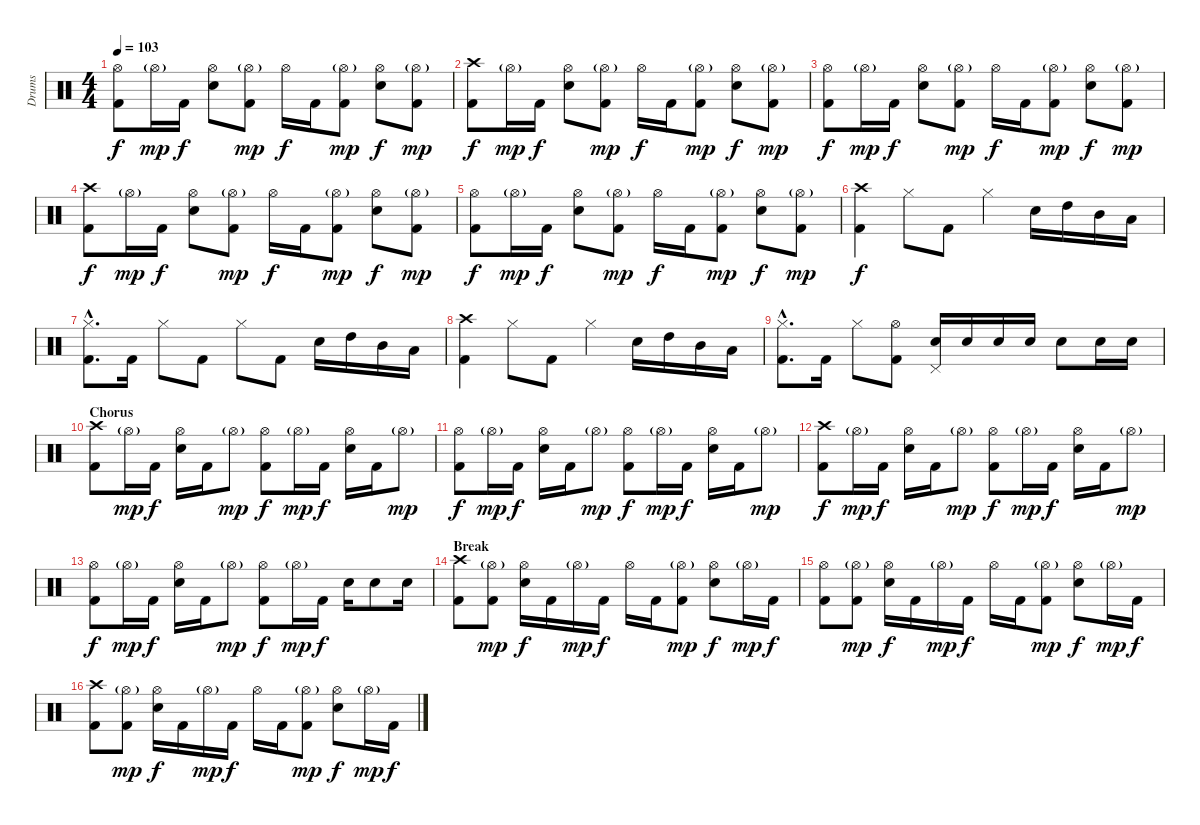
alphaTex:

\track ("Drums" "Drums") {instrument percussion}
\staff {score}
\articulation defaults
\ts (4 4)
\tempo 103
\clef neutral
\ks c
("Hi-Hat (open)" "Kick (hit) 2").8{dy f} "Hi-Hat (open)"{g}.16{dy mp} "Kick (hit) 2".16{dy f} ("Hi-Hat (open)" "Snare (hit) 2").8 ("Hi-Hat (open)"{g} "Kick (hit) 2").8{dy mp} "Hi-Hat (open)".16{dy f} "Kick (hit) 2".16 ("Hi-Hat (open)"{g} "Kick (hit) 2").8{dy mp} ("Hi-Hat (open)" "Snare (hit) 2").8{dy f} ("Hi-Hat (open)"{g} "Kick (hit) 2").8{dy mp} |
("Crash high (hit)" "Kick (hit) 2").8{dy f} "Hi-Hat (open)"{g}.16{dy mp} "Kick (hit) 2".16{dy f} ("Hi-Hat (open)" "Snare (hit) 2").8 ("Hi-Hat (open)"{g} "Kick (hit) 2").8{dy mp} "Hi-Hat (open)".16{dy f} "Kick (hit) 2".16 ("Hi-Hat (open)"{g} "Kick (hit) 2").8{dy mp} ("Hi-Hat (open)" "Snare (hit) 2").8{dy f} ("Hi-Hat (open)"{g} "Kick (hit) 2").8{dy mp} |
("Hi-Hat (open)" "Kick (hit) 2").8{dy f} "Hi-Hat (open)"{g}.16{dy mp} "Kick (hit) 2".16{dy f} ("Hi-Hat (open)" "Snare (hit) 2").8 ("Hi-Hat (open)"{g} "Kick (hit) 2").8{dy mp} "Hi-Hat (open)".16{dy f} "Kick (hit) 2".16 ("Hi-Hat (open)"{g} "Kick (hit) 2").8{dy mp} ("Hi-Hat (open)" "Snare (hit) 2").8{dy f} ("Hi-Hat (open)"{g} "Kick (hit) 2").8{dy mp} |
("Crash high (hit)" "Kick (hit) 2").8{dy f} "Hi-Hat (open)"{g}.16{dy mp} "Kick (hit) 2".16{dy f} ("Hi-Hat (open)" "Snare (hit) 2").8 ("Hi-Hat (open)"{g} "Kick (hit) 2").8{dy mp} "Hi-Hat (open)".16{dy f} "Kick (hit) 2".16 ("Hi-Hat (open)"{g} "Kick (hit) 2").8{dy mp} ("Hi-Hat (open)" "Snare (hit) 2").8{dy f} ("Hi-Hat (open)"{g} "Kick (hit) 2").8{dy mp} |
("Hi-Hat (open)" "Kick (hit) 2").8{dy f} "Hi-Hat (open)"{g}.16{dy mp} "Kick (hit) 2".16{dy f} ("Hi-Hat (open)" "Snare (hit) 2").8 ("Hi-Hat (open)"{g} "Kick (hit) 2").8{dy mp} "Hi-Hat (open)".16{dy f} "Kick (hit) 2".16 ("Hi-Hat (open)"{g} "Kick (hit) 2").8{dy mp} ("Hi-Hat (open)" "Snare (hit) 2").8{dy f} ("Hi-Hat (open)"{g} "Kick (hit) 2").8{dy mp} |
("Crash high (hit)" "Kick (hit) 2").4{dy f} "Hi-Hat (closed)".8 "Kick (hit) 2".8 "Hi-Hat (closed)".4 "Snare (hit) 2".16 "High Tom (hit)".16 "Mid Tom (hit)".16 "Low Floor Tom (hit)".16 |
("Hi-Hat (closed)"{hac} "Kick (hit) 2"{hac}).8{d} "Kick (hit) 2".16 "Hi-Hat (closed)".8 "Kick (hit) 2".8 "Hi-Hat (closed)".8 "Kick (hit) 2".8 "Snare (hit) 2".16 "High Tom (hit)".16 "Mid Tom (hit)".16 "Low Floor Tom (hit)".16 |
("Crash high (hit)" "Kick (hit) 2").4 "Hi-Hat (closed)".8 "Kick (hit) 2".8 "Hi-Hat (closed)".4 "Snare (hit) 2".16 "High Tom (hit)".16 "Mid Tom (hit)".16 "Low Floor Tom (hit)".16 |
("Hi-Hat (closed)"{hac} "Kick (hit) 2"{hac}).8{d} "Kick (hit) 2".16 "Hi-Hat (closed)".8 ("Hi-Hat (open)" "Kick (hit) 2").8 ("Snare (hit) 2" "Pedal Hi-Hat (hit)").16 "Snare (hit) 2".16 "Snare (hit) 2".16 "Snare (hit) 2".16 "Snare (hit) 2".8 "Snare (hit) 2".16 "Snare (hit) 2".16 |
\section ("" "Chorus")
("Crash high (hit)" "Kick (hit) 2").8 "Hi-Hat (open)"{g}.16{dy mp} "Kick (hit) 2".16{dy f} ("Hi-Hat (open)" "Snare (hit) 2").16 "Kick (hit) 2".16 "Hi-Hat (open)"{g}.8{dy mp} ("Hi-Hat (open)" "Kick (hit) 2").8{dy f} "Hi-Hat (open)"{g}.16{dy mp} "Kick (hit) 2".16{dy f} ("Hi-Hat (open)" "Snare (hit) 2").16 "Kick (hit) 2".16 "Hi-Hat (open)"{g}.8{dy mp} |
("Hi-Hat (open)" "Kick (hit) 2").8{dy f} "Hi-Hat (open)"{g}.16{dy mp} "Kick (hit) 2".16{dy f} ("Hi-Hat (open)" "Snare (hit) 2").16 "Kick (hit) 2".16 "Hi-Hat (open)"{g}.8{dy mp} ("Hi-Hat (open)" "Kick (hit) 2").8{dy f} "Hi-Hat (open)"{g}.16{dy mp} "Kick (hit) 2".16{dy f} ("Hi-Hat (open)" "Snare (hit) 2").16 "Kick (hit) 2".16 "Hi-Hat (open)"{g}.8{dy mp} |
("Crash high (hit)" "Kick (hit) 2").8{dy f} "Hi-Hat (open)"{g}.16{dy mp} "Kick (hit) 2".16{dy f} ("Hi-Hat (open)" "Snare (hit) 2").16 "Kick (hit) 2".16 "Hi-Hat (open)"{g}.8{dy mp} ("Hi-Hat (open)" "Kick (hit) 2").8{dy f} "Hi-Hat (open)"{g}.16{dy mp} "Kick (hit) 2".16{dy f} ("Hi-Hat (open)" "Snare (hit) 2").16 "Kick (hit) 2".16 "Hi-Hat (open)"{g}.8{dy mp} |
("Hi-Hat (open)" "Kick (hit) 2").8{dy f} "Hi-Hat (open)"{g}.16{dy mp} "Kick (hit) 2".16{dy f} ("Hi-Hat (open)" "Snare (hit) 2").16 "Kick (hit) 2".16 "Hi-Hat (open)"{g}.8{dy mp} ("Hi-Hat (open)" "Kick (hit) 2").8{dy f} "Hi-Hat (open)"{g}.16{dy mp} "Kick (hit) 2".16{dy f} "Snare (hit) 2".16 "Snare (hit) 2".8 "Snare (hit) 2".16 |
\section ("" "Break")
("Crash high (hit)" "Kick (hit) 2").8 ("Hi-Hat (open)"{g} "Kick (hit) 2").8{dy mp} ("Hi-Hat (open)" "Snare (hit) 2").16{dy f} "Kick (hit) 2".16 "Hi-Hat (open)"{g}.16{dy mp} "Kick (hit) 2".16{dy f} "Hi-Hat (open)".16 "Kick (hit) 2".16 ("Hi-Hat (open)"{g} "Kick (hit) 2").8{dy mp} ("Hi-Hat (open)" "Snare (hit) 2").8{dy f} "Hi-Hat (open)"{g}.16{dy mp} "Kick (hit) 2".16{dy f} |
("Hi-Hat (open)" "Kick (hit) 2").8 ("Hi-Hat (open)"{g} "Kick (hit) 2").8{dy mp} ("Hi-Hat (open)" "Snare (hit) 2").16{dy f} "Kick (hit) 2".16 "Hi-Hat (open)"{g}.16{dy mp} "Kick (hit) 2".16{dy f} "Hi-Hat (open)".16 "Kick (hit) 2".16 ("Hi-Hat (open)"{g} "Kick (hit) 2").8{dy mp} ("Hi-Hat (open)" "Snare (hit) 2").8{dy f} "Hi-Hat (open)"{g}.16{dy mp} "Kick (hit) 2".16{dy f} |
("Crash high (hit)" "Kick (hit) 2").8 ("Hi-Hat (open)"{g} "Kick (hit) 2").8{dy mp} ("Hi-Hat (open)" "Snare (hit) 2").16{dy f} "Kick (hit) 2".16 "Hi-Hat (open)"{g}.16{dy mp} "Kick (hit) 2".16{dy f} "Hi-Hat (open)".16 "Kick (hit) 2".16 ("Hi-Hat (open)"{g} "Kick (hit) 2").8{dy mp} ("Hi-Hat (open)" "Snare (hit) 2").8{dy f} "Hi-Hat (open)"{g}.16{dy mp} "Kick (hit) 2".16{dy f}
